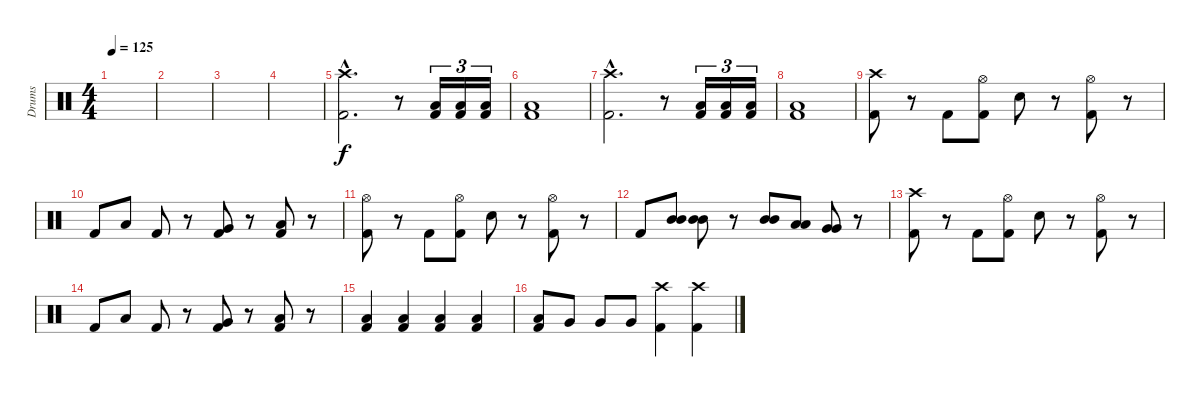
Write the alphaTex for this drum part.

\track ("Drums" "Drums") {instrument percussion}
\staff {score}
\articulation defaults
\ts (4 4)
\tempo 125
\clef neutral
\ks c
|
|
|
|
("Crash high (hit)"{hac} "Kick (hit) 2"{hac}).2{d} r.8 ("Low Floor Tom (hit)" "Kick (hit) 2").16{tu (3 2)} ("Low Floor Tom (hit)" "Kick (hit) 2").16{tu (3 2)} ("Low Floor Tom (hit)" "Kick (hit) 2").16{tu (3 2)} |
("Low Floor Tom (hit)" "Kick (hit) 2").1 |
("Crash high (hit)"{hac} "Kick (hit) 2"{hac}).2{d} r.8 ("Low Floor Tom (hit)" "Kick (hit) 2").16{tu (3 2)} ("Low Floor Tom (hit)" "Kick (hit) 2").16{tu (3 2)} ("Low Floor Tom (hit)" "Kick (hit) 2").16{tu (3 2)} |
("Low Floor Tom (hit)" "Kick (hit) 2").1 |
("Crash high (hit)" "Kick (hit) 2").8 r.8 "Kick (hit) 2".8 ("Hi-Hat (open)" "Kick (hit) 2").8 "Snare (hit) 2".8 r.8 ("Hi-Hat (open)" "Kick (hit) 2").8 r.8 |
"Kick (hit) 2".8 "Low Floor Tom (hit)".8 "Kick (hit) 2".8 r.8 ("Very Low Tom (hit)" "Kick (hit) 2").8 r.8 ("Low Floor Tom (hit)" "Kick (hit) 2").8 r.8 |
("Hi-Hat (open)" "Kick (hit) 2").8 r.8 "Kick (hit) 2".8 ("Hi-Hat (open)" "Kick (hit) 2").8 "Snare (hit) 2".8 r.8 ("Hi-Hat (open)" "Kick (hit) 2").8 r.8 |
"Kick (hit) 2".8 ("Mid Tom (hit)" "Mid Tom (hit)").8 ("Mid Tom (hit)" "Mid Tom (hit)").8 r.8 ("Mid Tom (hit)" "Mid Tom (hit)").8 ("Low Tom (hit)" "Low Tom (hit)").8 ("Very Low Tom (hit)" "Very Low Tom (hit)").8 r.8 |
("Crash high (hit)" "Kick (hit) 2").8 r.8 "Kick (hit) 2".8 ("Hi-Hat (open)" "Kick (hit) 2").8 "Snare (hit) 2".8 r.8 ("Hi-Hat (open)" "Kick (hit) 2").8 r.8 |
"Kick (hit) 2".8 "Low Floor Tom (hit)".8 "Kick (hit) 2".8 r.8 ("Very Low Tom (hit)" "Kick (hit) 2").8 r.8 ("Low Floor Tom (hit)" "Kick (hit) 2").8 r.8 |
("Low Floor Tom (hit)" "Kick (hit) 2").4 ("Low Floor Tom (hit)" "Kick (hit) 2").4 ("Low Floor Tom (hit)" "Kick (hit) 2").4 ("Low Floor Tom (hit)" "Kick (hit) 2").4 |
("Low Floor Tom (hit)" "Kick (hit) 2").8 "Very Low Tom (hit)".8 "Very Low Tom (hit)".8 "Very Low Tom (hit)".8 ("Crash high (hit)" "Kick (hit) 2").4 ("Crash high (hit)" "Kick (hit) 2").4
